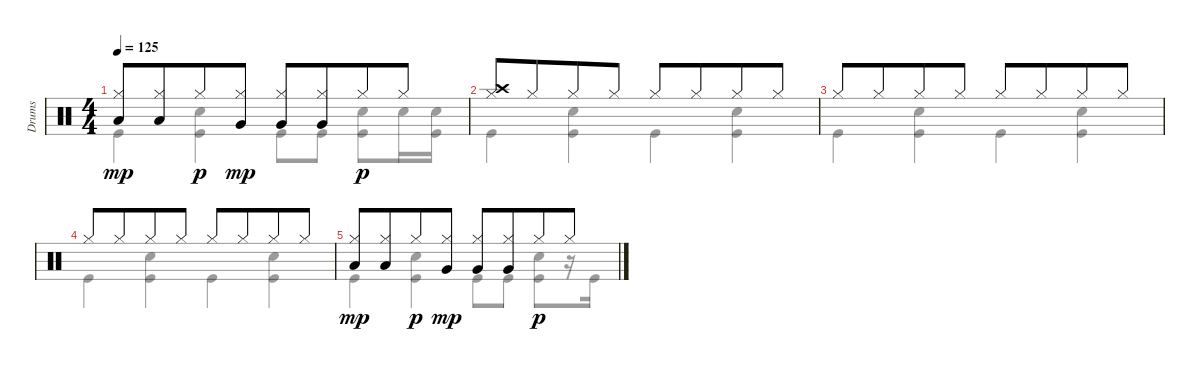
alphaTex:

\track ("Drums" "Drums") {instrument percussion}
\staff {score}
\articulation defaults
\voice
\ts (4 4)
\tempo 125
\clef neutral
\ks c
("Hi-Hat (closed)" "Low Tom (hit)").8{dy mp} ("Hi-Hat (closed)" "Low Tom (hit)").8{beam merge} "Hi-Hat (closed)".8{dy p} ("Hi-Hat (closed)" "Very Low Tom (hit)").8{dy mp} ("Hi-Hat (closed)" "Very Low Tom (hit)").8 ("Hi-Hat (closed)" "Very Low Tom (hit)").8{beam merge} "Hi-Hat (closed)".8{dy p} "Hi-Hat (closed)".8 |
("Hi-Hat (closed)" "Crash high (hit)").8 "Hi-Hat (closed)".8{beam merge} "Hi-Hat (closed)".8 "Hi-Hat (closed)".8 "Hi-Hat (closed)".8 "Hi-Hat (closed)".8{beam merge} "Hi-Hat (closed)".8 "Hi-Hat (closed)".8 |
"Hi-Hat (closed)".8 "Hi-Hat (closed)".8{beam merge} "Hi-Hat (closed)".8 "Hi-Hat (closed)".8 "Hi-Hat (closed)".8 "Hi-Hat (closed)".8{beam merge} "Hi-Hat (closed)".8 "Hi-Hat (closed)".8 |
"Hi-Hat (closed)".8 "Hi-Hat (closed)".8{beam merge} "Hi-Hat (closed)".8 "Hi-Hat (closed)".8 "Hi-Hat (closed)".8 "Hi-Hat (closed)".8{beam merge} "Hi-Hat (closed)".8 "Hi-Hat (closed)".8 |
("Hi-Hat (closed)" "Low Tom (hit)").8{dy mp} ("Hi-Hat (closed)" "Low Tom (hit)").8{beam merge} "Hi-Hat (closed)".8{dy p} ("Hi-Hat (closed)" "Very Low Tom (hit)").8{dy mp} ("Hi-Hat (closed)" "Very Low Tom (hit)").8 ("Hi-Hat (closed)" "Very Low Tom (hit)").8{beam merge} "Hi-Hat (closed)".8{dy p} "Hi-Hat (closed)".8
\voice
\clef neutral
\ottava regular
\simile none
\ks c "Kick (hit)".4{dy mp}
("Snare (hit) 2" "Kick (hit)").4 "Kick (hit)".8 "Kick (hit)".8 ("Snare (hit) 2" "Kick (hit)").8 "Snare (hit) 2".16 ("Snare (hit) 2" "Kick (hit)").16 |
"Kick (hit)".4 ("Snare (hit) 2" "Kick (hit)").4 "Kick (hit)".4 ("Snare (hit) 2" "Kick (hit)").4 |
"Kick (hit)".4 ("Snare (hit) 2" "Kick (hit)").4 "Kick (hit)".4 ("Snare (hit) 2" "Kick (hit)").4 |
"Kick (hit)".4 ("Snare (hit) 2" "Kick (hit)").4 "Kick (hit)".4 ("Snare (hit) 2" "Kick (hit)").4 |
"Kick (hit)".4 ("Snare (hit) 2" "Kick (hit)").4 "Kick (hit)".8 "Kick (hit)".8 ("Snare (hit) 2" "Kick (hit)").8 r.16 "Kick (hit)".16
